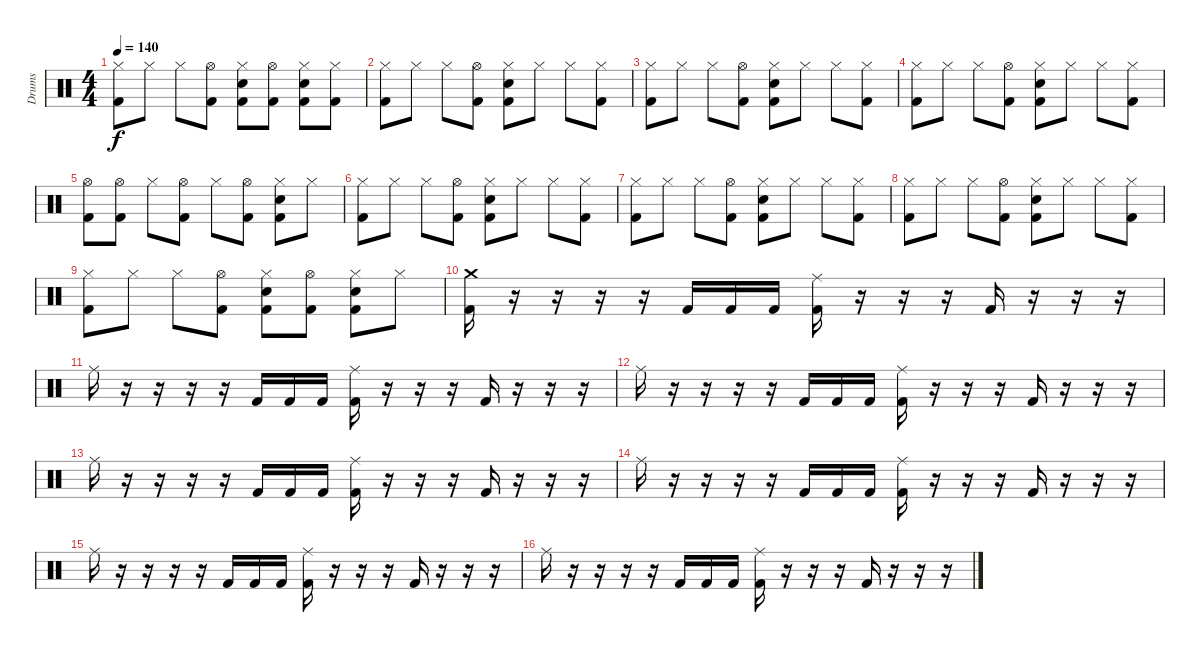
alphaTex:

\track ("Drums" "Drums") {instrument percussion}
\staff {score}
\articulation defaults
\ts (4 4)
\tempo 140
\clef neutral
\ks c
("Kick (hit) 2" "Hi-Hat (closed)").8{dy f} "Hi-Hat (closed)".8 "Hi-Hat (closed)".8 ("Kick (hit) 2" "Hi-Hat (open)").8 ("Kick (hit) 2" "Snare (hit) 2" "Hi-Hat (closed)").8 ("Kick (hit) 2" "Hi-Hat (open)").8 ("Kick (hit) 2" "Snare (hit) 2" "Hi-Hat (closed)").8 ("Kick (hit) 2" "Hi-Hat (closed)").8 |
("Kick (hit) 2" "Hi-Hat (closed)").8 "Hi-Hat (closed)".8 "Hi-Hat (closed)".8 ("Kick (hit) 2" "Hi-Hat (open)").8 ("Kick (hit) 2" "Snare (hit) 2" "Hi-Hat (closed)").8 "Hi-Hat (closed)".8 "Hi-Hat (closed)".8 ("Kick (hit) 2" "Hi-Hat (closed)").8 |
("Kick (hit) 2" "Hi-Hat (closed)").8 "Hi-Hat (closed)".8 "Hi-Hat (closed)".8 ("Kick (hit) 2" "Hi-Hat (open)").8 ("Kick (hit) 2" "Snare (hit) 2" "Hi-Hat (closed)").8 "Hi-Hat (closed)".8 "Hi-Hat (closed)".8 ("Kick (hit) 2" "Hi-Hat (closed)").8 |
("Kick (hit) 2" "Hi-Hat (closed)").8 "Hi-Hat (closed)".8 "Hi-Hat (closed)".8 ("Kick (hit) 2" "Hi-Hat (open)").8 ("Kick (hit) 2" "Snare (hit) 2" "Hi-Hat (closed)").8 "Hi-Hat (closed)".8 "Hi-Hat (closed)".8 ("Kick (hit) 2" "Hi-Hat (closed)").8 |
("Kick (hit) 2" "Hi-Hat (open)").8 ("Kick (hit) 2" "Hi-Hat (open)").8 "Hi-Hat (closed)".8 ("Kick (hit) 2" "Hi-Hat (open)").8 "Hi-Hat (closed)".8 ("Kick (hit) 2" "Hi-Hat (open)").8 ("Kick (hit) 2" "Snare (hit) 2" "Hi-Hat (closed)").8 "Hi-Hat (closed)".8 |
("Kick (hit) 2" "Hi-Hat (closed)").8 "Hi-Hat (closed)".8 "Hi-Hat (closed)".8 ("Kick (hit) 2" "Hi-Hat (open)").8 ("Kick (hit) 2" "Snare (hit) 2" "Hi-Hat (closed)").8 "Hi-Hat (closed)".8 "Hi-Hat (closed)".8 ("Kick (hit) 2" "Hi-Hat (closed)").8 |
("Kick (hit) 2" "Hi-Hat (closed)").8 "Hi-Hat (closed)".8 "Hi-Hat (closed)".8 ("Kick (hit) 2" "Hi-Hat (open)").8 ("Kick (hit) 2" "Snare (hit) 2" "Hi-Hat (closed)").8 "Hi-Hat (closed)".8 "Hi-Hat (closed)".8 ("Kick (hit) 2" "Hi-Hat (closed)").8 |
("Kick (hit) 2" "Hi-Hat (closed)").8 "Hi-Hat (closed)".8 "Hi-Hat (closed)".8 ("Kick (hit) 2" "Hi-Hat (open)").8 ("Kick (hit) 2" "Snare (hit) 2" "Hi-Hat (closed)").8 "Hi-Hat (closed)".8 "Hi-Hat (closed)".8 ("Kick (hit) 2" "Hi-Hat (closed)").8 |
("Kick (hit) 2" "Hi-Hat (closed)").8 "Hi-Hat (closed)".8 "Hi-Hat (closed)".8 ("Kick (hit) 2" "Hi-Hat (open)").8 ("Kick (hit) 2" "Snare (hit) 2" "Hi-Hat (closed)").8 ("Kick (hit) 2" "Hi-Hat (open)").8 ("Kick (hit) 2" "Snare (hit) 2" "Hi-Hat (closed)").8 "Hi-Hat (closed)".8 |
("Kick (hit) 2" "Crash medium (hit)").16 r.16 r.16 r.16 r.16 "Kick (hit) 2".16 "Kick (hit) 2".16 "Kick (hit) 2".16 ("Kick (hit) 2" "Ride (middle)").16 r.16 r.16 r.16 "Kick (hit) 2".16 r.16 r.16 r.16 |
"Ride (middle)".16 r.16 r.16 r.16 r.16 "Kick (hit) 2".16 "Kick (hit) 2".16 "Kick (hit) 2".16 ("Kick (hit) 2" "Ride (middle)").16 r.16 r.16 r.16 "Kick (hit) 2".16 r.16 r.16 r.16 |
"Ride (middle)".16 r.16 r.16 r.16 r.16 "Kick (hit) 2".16 "Kick (hit) 2".16 "Kick (hit) 2".16 ("Kick (hit) 2" "Ride (middle)").16 r.16 r.16 r.16 "Kick (hit) 2".16 r.16 r.16 r.16 |
"Ride (middle)".16 r.16 r.16 r.16 r.16 "Kick (hit) 2".16 "Kick (hit) 2".16 "Kick (hit) 2".16 ("Kick (hit) 2" "Ride (middle)").16 r.16 r.16 r.16 "Kick (hit) 2".16 r.16 r.16 r.16 |
"Ride (middle)".16 r.16 r.16 r.16 r.16 "Kick (hit) 2".16 "Kick (hit) 2".16 "Kick (hit) 2".16 ("Kick (hit) 2" "Ride (middle)").16 r.16 r.16 r.16 "Kick (hit) 2".16 r.16 r.16 r.16 |
"Ride (middle)".16 r.16 r.16 r.16 r.16 "Kick (hit) 2".16 "Kick (hit) 2".16 "Kick (hit) 2".16 ("Kick (hit) 2" "Ride (middle)").16 r.16 r.16 r.16 "Kick (hit) 2".16 r.16 r.16 r.16 |
"Ride (middle)".16 r.16 r.16 r.16 r.16 "Kick (hit) 2".16 "Kick (hit) 2".16 "Kick (hit) 2".16 ("Kick (hit) 2" "Ride (middle)").16 r.16 r.16 r.16 "Kick (hit) 2".16 r.16 r.16 r.16
